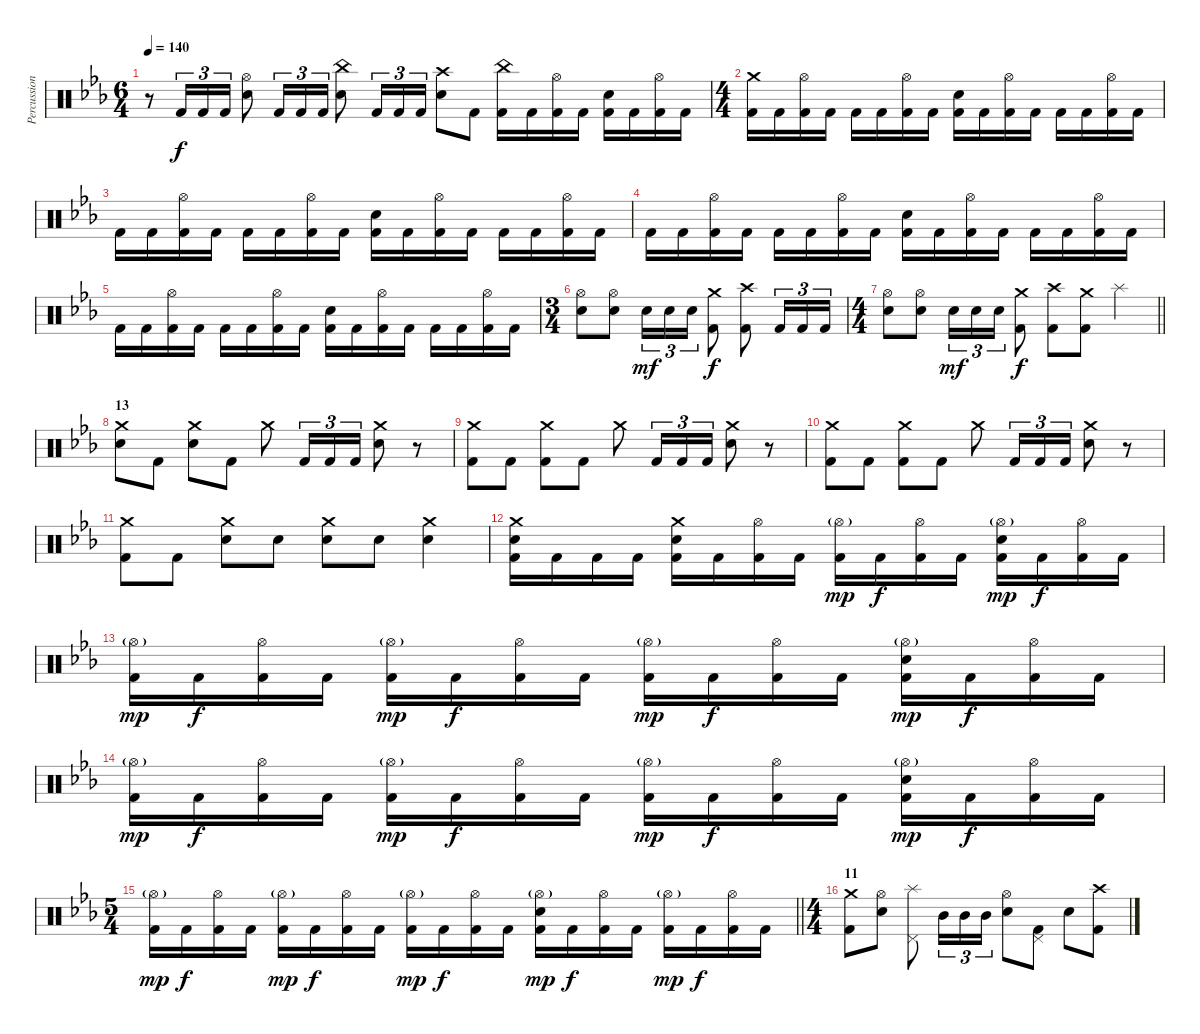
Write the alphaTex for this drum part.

\track ("Percussion" "Percussion") {instrument percussion}
\staff {score}
\articulation defaults
\ts (6 4)
\tempo 140
\clef neutral
\ks cminor
r.8{dy f} "Kick (hit) 2".16{tu (3 2)} "Kick (hit) 2".16{tu (3 2)} "Kick (hit) 2".16{tu (3 2)} ("Hi-Hat (open)" "Snare (hit) 2").8 "Kick (hit) 2".16{tu (3 2)} "Kick (hit) 2".16{tu (3 2)} "Kick (hit) 2".16{tu (3 2)} ("China (hit)" "Snare (hit) 2").8 "Kick (hit) 2".16{tu (3 2)} "Kick (hit) 2".16{tu (3 2)} "Kick (hit) 2".16{tu (3 2)} ("Crash high (hit)" "Snare (hit) 2").8 "Kick (hit) 2".8 ("China (hit)" "Kick (hit) 2").16 "Kick (hit) 2".16 ("Hi-Hat (open)" "Kick (hit) 2").16 "Kick (hit) 2".16 ("Snare (hit) 2" "Kick (hit) 2").16 "Kick (hit) 2".16 ("Hi-Hat (open)" "Kick (hit) 2").16 "Kick (hit) 2".16 |
\ts (4 4)
("Crash medium (hit)" "Kick (hit) 2").16 "Kick (hit) 2".16 ("Hi-Hat (open)" "Kick (hit) 2").16 "Kick (hit) 2".16 "Kick (hit) 2".16 "Kick (hit) 2".16 ("Hi-Hat (open)" "Kick (hit) 2").16 "Kick (hit) 2".16 ("Snare (hit) 2" "Kick (hit) 2").16 "Kick (hit) 2".16 ("Hi-Hat (open)" "Kick (hit) 2").16 "Kick (hit) 2".16 "Kick (hit) 2".16 "Kick (hit) 2".16 ("Hi-Hat (open)" "Kick (hit) 2").16 "Kick (hit) 2".16 |
"Kick (hit) 2".16 "Kick (hit) 2".16 ("Hi-Hat (open)" "Kick (hit) 2").16 "Kick (hit) 2".16 "Kick (hit) 2".16 "Kick (hit) 2".16 ("Hi-Hat (open)" "Kick (hit) 2").16 "Kick (hit) 2".16 ("Snare (hit) 2" "Kick (hit) 2").16 "Kick (hit) 2".16 ("Hi-Hat (open)" "Kick (hit) 2").16 "Kick (hit) 2".16 "Kick (hit) 2".16 "Kick (hit) 2".16 ("Hi-Hat (open)" "Kick (hit) 2").16 "Kick (hit) 2".16 |
"Kick (hit) 2".16 "Kick (hit) 2".16 ("Hi-Hat (open)" "Kick (hit) 2").16 "Kick (hit) 2".16 "Kick (hit) 2".16 "Kick (hit) 2".16 ("Hi-Hat (open)" "Kick (hit) 2").16 "Kick (hit) 2".16 ("Snare (hit) 2" "Kick (hit) 2").16 "Kick (hit) 2".16 ("Hi-Hat (open)" "Kick (hit) 2").16 "Kick (hit) 2".16 "Kick (hit) 2".16 "Kick (hit) 2".16 ("Hi-Hat (open)" "Kick (hit) 2").16 "Kick (hit) 2".16 |
"Kick (hit) 2".16 "Kick (hit) 2".16 ("Hi-Hat (open)" "Kick (hit) 2").16 "Kick (hit) 2".16 "Kick (hit) 2".16 "Kick (hit) 2".16 ("Hi-Hat (open)" "Kick (hit) 2").16 "Kick (hit) 2".16 ("Snare (hit) 2" "Kick (hit) 2").16 "Kick (hit) 2".16 ("Hi-Hat (open)" "Kick (hit) 2").16 "Kick (hit) 2".16 "Kick (hit) 2".16 "Kick (hit) 2".16 ("Hi-Hat (open)" "Kick (hit) 2").16 "Kick (hit) 2".16 |
\ts (3 4)
("Hi-Hat (open)" "Snare (hit) 2").8 ("Hi-Hat (open)" "Snare (hit) 2").8 "Snare (hit) 2".16{tu (3 2) dy mf} "Snare (hit) 2".16{tu (3 2)} "Snare (hit) 2".16{tu (3 2)} ("Crash medium (hit)" "Kick (hit) 2").8{dy f} ("Crash high (hit)" "Kick (hit) 2").8 "Kick (hit) 2".16{tu (3 2)} "Kick (hit) 2".16{tu (3 2)} "Kick (hit) 2".16{tu (3 2)} |
\ts (4 4)
\barLineRight lightlight
("Hi-Hat (open)" "Snare (hit) 2").8 ("Hi-Hat (open)" "Snare (hit) 2").8 "Snare (hit) 2".16{tu (3 2) dy mf} "Snare (hit) 2".16{tu (3 2)} "Snare (hit) 2".16{tu (3 2)} ("Crash medium (hit)" "Kick (hit) 2").8{dy f} ("Crash high (hit)" "Kick (hit) 2").8 ("Crash medium (hit)" "Kick (hit) 2").8 "Splash (hit)".4 |
\section ("" "13")
("Crash medium (hit)" "Snare (hit) 2").8 "Kick (hit) 2".8 ("Crash medium (hit)" "Snare (hit) 2").8 "Kick (hit) 2".8 "Crash medium (hit)".8 "Kick (hit) 2".16{tu (3 2)} "Kick (hit) 2".16{tu (3 2)} "Kick (hit) 2".16{tu (3 2)} ("Crash medium (hit)" "Snare (hit) 2").8 r.8 |
("Crash medium (hit)" "Kick (hit) 2").8 "Kick (hit) 2".8 ("Crash medium (hit)" "Kick (hit) 2").8 "Kick (hit) 2".8 "Crash medium (hit)".8 "Kick (hit) 2".16{tu (3 2)} "Kick (hit) 2".16{tu (3 2)} "Kick (hit) 2".16{tu (3 2)} ("Crash medium (hit)" "Snare (hit) 2").8 r.8 |
("Crash medium (hit)" "Kick (hit) 2").8 "Kick (hit) 2".8 ("Crash medium (hit)" "Kick (hit) 2").8 "Kick (hit) 2".8 "Crash medium (hit)".8 "Kick (hit) 2".16{tu (3 2)} "Kick (hit) 2".16{tu (3 2)} "Kick (hit) 2".16{tu (3 2)} ("Crash medium (hit)" "Snare (hit) 2").8 r.8 |
("Crash medium (hit)" "Kick (hit) 2").8 "Kick (hit) 2".8 ("Crash medium (hit)" "Snare (hit) 2").8 "Snare (hit) 2".8 ("Crash medium (hit)" "Snare (hit) 2").8 "Snare (hit) 2".8 ("Crash medium (hit)" "Snare (hit) 2").4 |
("Crash medium (hit)" "Snare (hit) 2" "Kick (hit) 2").16 "Kick (hit) 2".16 "Kick (hit) 2".16 "Kick (hit) 2".16 ("Crash medium (hit)" "Snare (hit) 2" "Kick (hit) 2").16 "Kick (hit) 2".16 ("Hi-Hat (open)" "Kick (hit) 2").16 "Kick (hit) 2".16 ("Hi-Hat (open)"{g} "Kick (hit) 2").16{dy mp} "Kick (hit) 2".16{dy f} ("Hi-Hat (open)" "Kick (hit) 2").16 "Kick (hit) 2".16 ("Hi-Hat (open)"{g} "Snare (hit) 2" "Kick (hit) 2").16{dy mp} "Kick (hit) 2".16{dy f} ("Hi-Hat (open)" "Kick (hit) 2").16 "Kick (hit) 2".16 |
("Hi-Hat (open)"{g} "Kick (hit) 2").16{dy mp} "Kick (hit) 2".16{dy f} ("Hi-Hat (open)" "Kick (hit) 2").16 "Kick (hit) 2".16 ("Hi-Hat (open)"{g} "Kick (hit) 2").16{dy mp} "Kick (hit) 2".16{dy f} ("Hi-Hat (open)" "Kick (hit) 2").16 "Kick (hit) 2".16 ("Hi-Hat (open)"{g} "Kick (hit) 2").16{dy mp} "Kick (hit) 2".16{dy f} ("Hi-Hat (open)" "Kick (hit) 2").16 "Kick (hit) 2".16 ("Hi-Hat (open)"{g} "Snare (hit) 2" "Kick (hit) 2").16{dy mp} "Kick (hit) 2".16{dy f} ("Hi-Hat (open)" "Kick (hit) 2").16 "Kick (hit) 2".16 |
("Hi-Hat (open)"{g} "Kick (hit) 2").16{dy mp} "Kick (hit) 2".16{dy f} ("Hi-Hat (open)" "Kick (hit) 2").16 "Kick (hit) 2".16 ("Hi-Hat (open)"{g} "Kick (hit) 2").16{dy mp} "Kick (hit) 2".16{dy f} ("Hi-Hat (open)" "Kick (hit) 2").16 "Kick (hit) 2".16 ("Hi-Hat (open)"{g} "Kick (hit) 2").16{dy mp} "Kick (hit) 2".16{dy f} ("Hi-Hat (open)" "Kick (hit) 2").16 "Kick (hit) 2".16 ("Hi-Hat (open)"{g} "Snare (hit) 2" "Kick (hit) 2").16{dy mp} "Kick (hit) 2".16{dy f} ("Hi-Hat (open)" "Kick (hit) 2").16 "Kick (hit) 2".16 |
\ts (5 4)
\barLineRight lightlight
("Hi-Hat (open)"{g} "Kick (hit) 2").16{dy mp} "Kick (hit) 2".16{dy f} ("Hi-Hat (open)" "Kick (hit) 2").16 "Kick (hit) 2".16 ("Hi-Hat (open)"{g} "Kick (hit) 2").16{dy mp} "Kick (hit) 2".16{dy f} ("Hi-Hat (open)" "Kick (hit) 2").16 "Kick (hit) 2".16 ("Hi-Hat (open)"{g} "Kick (hit) 2").16{dy mp} "Kick (hit) 2".16{dy f} ("Hi-Hat (open)" "Kick (hit) 2").16 "Kick (hit) 2".16 ("Hi-Hat (open)"{g} "Snare (hit) 2" "Kick (hit) 2").16{dy mp} "Kick (hit) 2".16{dy f} ("Hi-Hat (open)" "Kick (hit) 2").16 "Kick (hit) 2".16 ("Hi-Hat (open)"{g} "Kick (hit) 2").16{dy mp} "Kick (hit) 2".16{dy f} ("Hi-Hat (open)" "Kick (hit) 2").16 "Kick (hit) 2".16 |
\ts (4 4)
\section ("" "11")
("Crash medium (hit)" "Kick (hit) 2").8 ("Hi-Hat (open)" "Snare (hit) 2").8 ("Splash (hit)" "Pedal Hi-Hat (hit)").8 "Mid Tom (hit)".16{tu (3 2)} "Mid Tom (hit)".16{tu (3 2)} "Mid Tom (hit)".16{tu (3 2)} ("Hi-Hat (open)" "Snare (hit) 2").8 ("Pedal Hi-Hat (hit)" "Kick (hit) 2").8 "Snare (hit) 2".8 ("Crash high (hit)" "Kick (hit) 2").8
